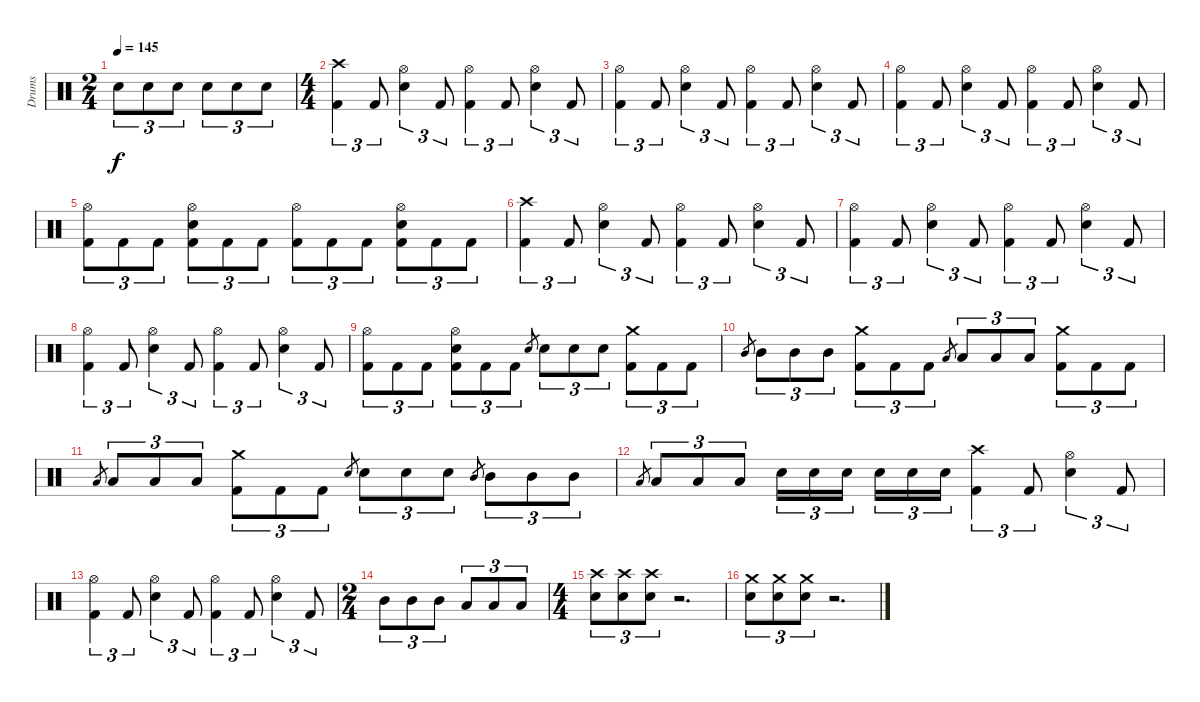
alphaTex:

\track ("Drums" "Drums") {instrument percussion}
\staff {score}
\articulation defaults
\ts (2 4)
\tempo 145
\clef neutral
\ks c "Electric Snare (hit)".8{tu (3 2) dy f} "Electric Snare (hit)".8{tu (3 2)} "Electric Snare (hit)".8{tu (3 2)} "Electric Snare (hit)".8{tu (3 2)} "Electric Snare (hit)".8{tu (3 2)} "Electric Snare (hit)".8{tu (3 2)}
|
\ts (4 4)
("Crash high (hit)" "Kick (hit) 2").4{tu (3 2)} "Kick (hit) 2".8{tu (3 2)} ("Hi-Hat (open)" "Electric Snare (hit)").4{tu (3 2)} "Kick (hit) 2".8{tu (3 2)} ("Hi-Hat (open)" "Kick (hit) 2").4{tu (3 2)} "Kick (hit) 2".8{tu (3 2)} ("Hi-Hat (open)" "Electric Snare (hit)").4{tu (3 2)} "Kick (hit) 2".8{tu (3 2)} |
("Hi-Hat (open)" "Kick (hit) 2").4{tu (3 2)} "Kick (hit) 2".8{tu (3 2)} ("Hi-Hat (open)" "Electric Snare (hit)").4{tu (3 2)} "Kick (hit) 2".8{tu (3 2)} ("Hi-Hat (open)" "Kick (hit) 2").4{tu (3 2)} "Kick (hit) 2".8{tu (3 2)} ("Hi-Hat (open)" "Electric Snare (hit)").4{tu (3 2)} "Kick (hit) 2".8{tu (3 2)} |
("Hi-Hat (open)" "Kick (hit) 2").4{tu (3 2)} "Kick (hit) 2".8{tu (3 2)} ("Hi-Hat (open)" "Electric Snare (hit)").4{tu (3 2)} "Kick (hit) 2".8{tu (3 2)} ("Hi-Hat (open)" "Kick (hit) 2").4{tu (3 2)} "Kick (hit) 2".8{tu (3 2)} ("Hi-Hat (open)" "Electric Snare (hit)").4{tu (3 2)} "Kick (hit) 2".8{tu (3 2)} |
("Hi-Hat (open)" "Kick (hit) 2").8{tu (3 2)} "Kick (hit) 2".8{tu (3 2)} "Kick (hit) 2".8{tu (3 2)} ("Hi-Hat (open)" "Electric Snare (hit)" "Kick (hit) 2").8{tu (3 2)} "Kick (hit) 2".8{tu (3 2)} "Kick (hit) 2".8{tu (3 2)} ("Hi-Hat (open)" "Kick (hit) 2").8{tu (3 2)} "Kick (hit) 2".8{tu (3 2)} "Kick (hit) 2".8{tu (3 2)} ("Hi-Hat (open)" "Electric Snare (hit)" "Kick (hit) 2").8{tu (3 2)} "Kick (hit) 2".8{tu (3 2)} "Kick (hit) 2".8{tu (3 2)} |
("Crash high (hit)" "Kick (hit) 2").4{tu (3 2)} "Kick (hit) 2".8{tu (3 2)} ("Hi-Hat (open)" "Electric Snare (hit)").4{tu (3 2)} "Kick (hit) 2".8{tu (3 2)} ("Hi-Hat (open)" "Kick (hit) 2").4{tu (3 2)} "Kick (hit) 2".8{tu (3 2)} ("Hi-Hat (open)" "Electric Snare (hit)").4{tu (3 2)} "Kick (hit) 2".8{tu (3 2)} |
("Hi-Hat (open)" "Kick (hit) 2").4{tu (3 2)} "Kick (hit) 2".8{tu (3 2)} ("Hi-Hat (open)" "Electric Snare (hit)").4{tu (3 2)} "Kick (hit) 2".8{tu (3 2)} ("Hi-Hat (open)" "Kick (hit) 2").4{tu (3 2)} "Kick (hit) 2".8{tu (3 2)} ("Hi-Hat (open)" "Electric Snare (hit)").4{tu (3 2)} "Kick (hit) 2".8{tu (3 2)} |
("Hi-Hat (open)" "Kick (hit) 2").4{tu (3 2)} "Kick (hit) 2".8{tu (3 2)} ("Hi-Hat (open)" "Electric Snare (hit)").4{tu (3 2)} "Kick (hit) 2".8{tu (3 2)} ("Hi-Hat (open)" "Kick (hit) 2").4{tu (3 2)} "Kick (hit) 2".8{tu (3 2)} ("Hi-Hat (open)" "Electric Snare (hit)").4{tu (3 2)} "Kick (hit) 2".8{tu (3 2)} |
("Hi-Hat (open)" "Kick (hit) 2").8{tu (3 2)} "Kick (hit) 2".8{tu (3 2)} "Kick (hit) 2".8{tu (3 2)} ("Hi-Hat (open)" "Electric Snare (hit)" "Kick (hit) 2").8{tu (3 2)} "Kick (hit) 2".8{tu (3 2)} "Kick (hit) 2".8{tu (3 2)} "Electric Snare (hit)".8{gr} "Electric Snare (hit)".8{tu (3 2)} "Electric Snare (hit)".8{tu (3 2)} "Electric Snare (hit)".8{tu (3 2)} ("Crash medium (hit)" "Kick (hit) 2").8{tu (3 2)} "Kick (hit) 2".8{tu (3 2)} "Kick (hit) 2".8{tu (3 2)} |
"Mid Tom (hit)".8{gr} "Mid Tom (hit)".8{tu (3 2)} "Mid Tom (hit)".8{tu (3 2)} "Mid Tom (hit)".8{tu (3 2)} ("Crash medium (hit)" "Kick (hit) 2").8{tu (3 2)} "Kick (hit) 2".8{tu (3 2)} "Kick (hit) 2".8{tu (3 2)} "Low Tom (hit)".8{gr} "Low Tom (hit)".8{tu (3 2)} "Low Tom (hit)".8{tu (3 2)} "Low Tom (hit)".8{tu (3 2)} ("Crash medium (hit)" "Kick (hit) 2").8{tu (3 2)} "Kick (hit) 2".8{tu (3 2)} "Kick (hit) 2".8{tu (3 2)} |
"Low Floor Tom (hit)".8{gr} "Low Floor Tom (hit)".8{tu (3 2)} "Low Floor Tom (hit)".8{tu (3 2)} "Low Floor Tom (hit)".8{tu (3 2)} ("Crash medium (hit)" "Kick (hit) 2").8{tu (3 2)} "Kick (hit) 2".8{tu (3 2)} "Kick (hit) 2".8{tu (3 2)} "Electric Snare (hit)".8{gr} "Electric Snare (hit)".8{tu (3 2)} "Electric Snare (hit)".8{tu (3 2)} "Electric Snare (hit)".8{tu (3 2)} "Mid Tom (hit)".8{gr} "Mid Tom (hit)".8{tu (3 2)} "Mid Tom (hit)".8{tu (3 2)} "Mid Tom (hit)".8{tu (3 2)} |
"Low Tom (hit)".8{gr} "Low Tom (hit)".8{tu (3 2)} "Low Tom (hit)".8{tu (3 2)} "Low Tom (hit)".8{tu (3 2)} "Electric Snare (hit)".16{tu (3 2)} "Electric Snare (hit)".16{tu (3 2)} "Electric Snare (hit)".16{tu (3 2)} "Electric Snare (hit)".16{tu (3 2)} "Electric Snare (hit)".16{tu (3 2)} "Electric Snare (hit)".16{tu (3 2)} ("Crash high (hit)" "Kick (hit) 2").4{tu (3 2)} "Kick (hit) 2".8{tu (3 2)} ("Hi-Hat (open)" "Electric Snare (hit)").4{tu (3 2)} "Kick (hit) 2".8{tu (3 2)} |
("Hi-Hat (open)" "Kick (hit) 2").4{tu (3 2)} "Kick (hit) 2".8{tu (3 2)} ("Hi-Hat (open)" "Electric Snare (hit)").4{tu (3 2)} "Kick (hit) 2".8{tu (3 2)} ("Hi-Hat (open)" "Kick (hit) 2").4{tu (3 2)} "Kick (hit) 2".8{tu (3 2)} ("Hi-Hat (open)" "Electric Snare (hit)").4{tu (3 2)} "Kick (hit) 2".8{tu (3 2)} |
\ts (2 4)
"Mid Tom (hit)".8{tu (3 2)} "Mid Tom (hit)".8{tu (3 2)} "Mid Tom (hit)".8{tu (3 2)} "Low Tom (hit)".8{tu (3 2)} "Low Tom (hit)".8{tu (3 2)} "Low Tom (hit)".8{tu (3 2)} |
\ts (4 4)
("Crash high (hit)" "Electric Snare (hit)").8{tu (3 2)} ("Crash high (hit)" "Electric Snare (hit)").8{tu (3 2)} ("Crash high (hit)" "Electric Snare (hit)").8{tu (3 2)} r.2{d} |
("Crash medium (hit)" "Electric Snare (hit)").8{tu (3 2)} ("Crash medium (hit)" "Electric Snare (hit)").8{tu (3 2)} ("Crash medium (hit)" "Electric Snare (hit)").8{tu (3 2)} r.2{d}
